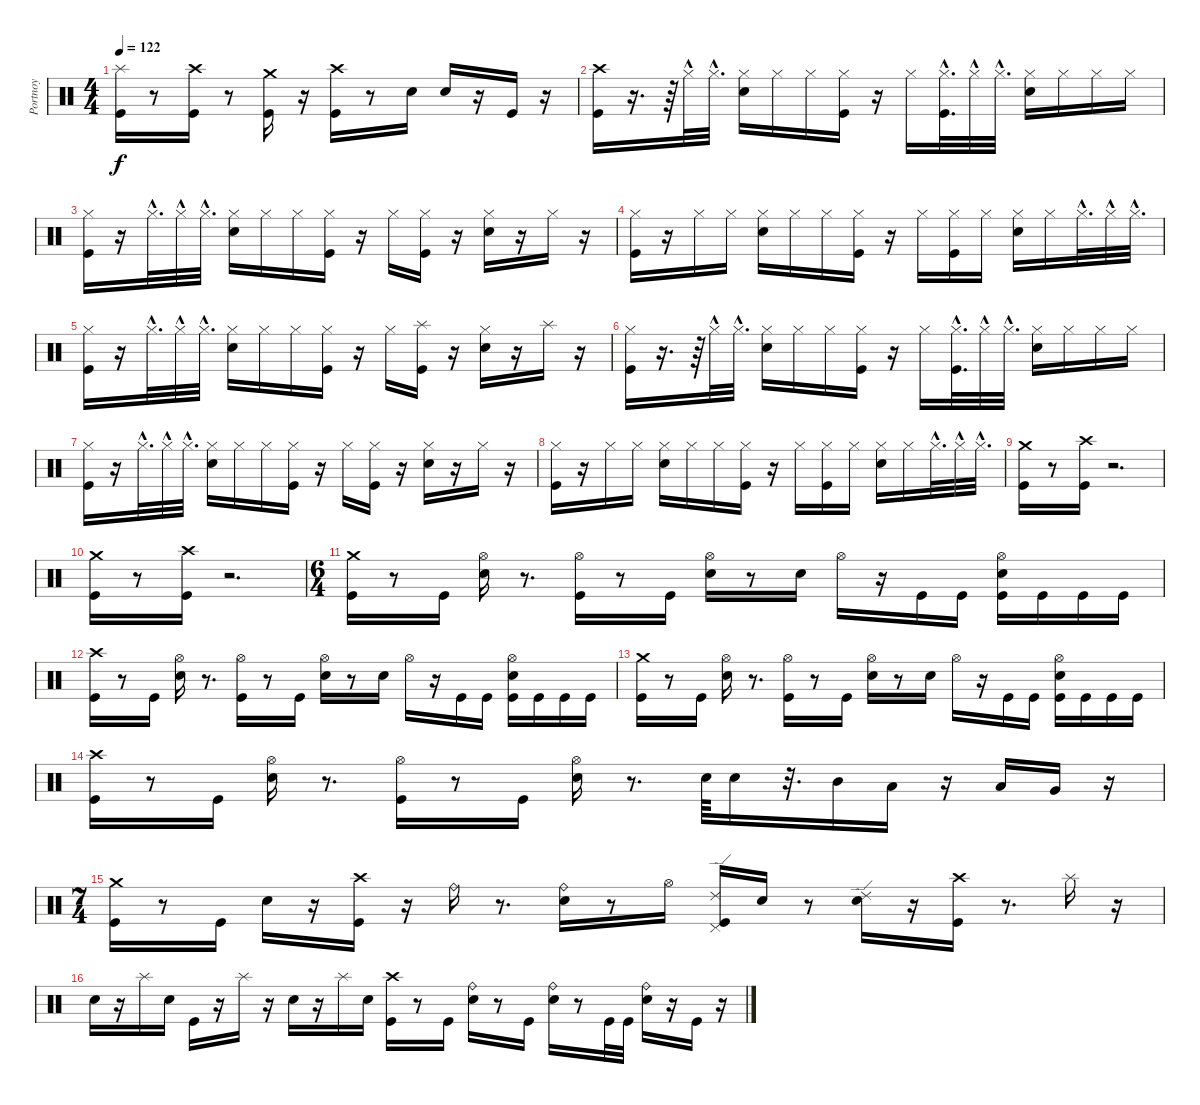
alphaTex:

\track ("Portnoy" "Portnoy") {instrument percussion}
\staff {score}
\articulation defaults
\ts (4 4)
\tempo 122
\clef neutral
\ks c
("Splash (hit)" "Kick (hit)").16{dy f} r.8 ("Crash high (hit)" "Kick (hit)").16 r.8 ("Crash medium (hit)" "Kick (hit)").16 r.16 ("Crash high (hit)" "Kick (hit)").16 r.8 "Metronome (bell)".16 "Metronome (bell)".16 r.16 "Kick (hit)".16 r.16 |
("Crash high (hit)" "Kick (hit)").16 r.16{d} r.64 "Hi-Hat (closed)"{hac}.32 "Hi-Hat (closed)"{hac}.32{d} ("Metronome (bell)" "Hi-Hat (closed)").16 "Hi-Hat (closed)".16 "Hi-Hat (closed)".16 ("Hi-Hat (closed)" "Kick (hit)").16 r.16 "Hi-Hat (closed)".16 ("Hi-Hat (closed)"{hac} "Kick (hit)"{hac}).32{d} "Hi-Hat (closed)"{hac}.32 "Hi-Hat (closed)"{hac}.32{d} ("Metronome (bell)" "Hi-Hat (closed)").16 "Hi-Hat (closed)".16 "Hi-Hat (closed)".16 "Hi-Hat (closed)".16 |
("Hi-Hat (closed)" "Kick (hit)").16 r.16 "Hi-Hat (closed)"{hac}.32{d} "Hi-Hat (closed)"{hac}.32 "Hi-Hat (closed)"{hac}.32{d} ("Hi-Hat (closed)" "Metronome (bell)").16 "Hi-Hat (closed)".16 "Hi-Hat (closed)".16 ("Hi-Hat (closed)" "Kick (hit)").16 r.16 "Hi-Hat (closed)".16 ("Hi-Hat (closed)" "Kick (hit)").16 r.16 ("Hi-Hat (closed)" "Metronome (bell)").16 r.16 "Hi-Hat (closed)".16 r.16 |
("Hi-Hat (closed)" "Kick (hit)").16 r.16 "Hi-Hat (closed)".16 "Hi-Hat (closed)".16 ("Metronome (bell)" "Hi-Hat (closed)").16 "Hi-Hat (closed)".16 "Hi-Hat (closed)".16 ("Hi-Hat (closed)" "Kick (hit)").16 r.16 "Hi-Hat (closed)".16 ("Hi-Hat (closed)" "Kick (hit)").16 "Hi-Hat (closed)".16 ("Metronome (bell)" "Hi-Hat (closed)").16 "Hi-Hat (closed)".16 "Hi-Hat (closed)"{hac}.32{d} "Hi-Hat (closed)"{hac}.32 "Hi-Hat (closed)"{hac}.32{d} |
("Hi-Hat (closed)" "Kick (hit)").16 r.16 "Hi-Hat (closed)"{hac}.32{d} "Hi-Hat (closed)"{hac}.32 "Hi-Hat (closed)"{hac}.32{d} ("Hi-Hat (closed)" "Metronome (bell)").16 "Hi-Hat (closed)".16 "Hi-Hat (closed)".16 ("Hi-Hat (closed)" "Kick (hit)").16 r.16 "Hi-Hat (closed)".16 ("Splash (hit)" "Kick (hit)").16 r.16 ("Hi-Hat (closed)" "Metronome (bell)").16 r.16 "Splash (hit)".16 r.16 |
("Hi-Hat (closed)" "Kick (hit)").16 r.16{d} r.64 "Hi-Hat (closed)"{hac}.32 "Hi-Hat (closed)"{hac}.32{d} ("Metronome (bell)" "Hi-Hat (closed)").16 "Hi-Hat (closed)".16 "Hi-Hat (closed)".16 ("Hi-Hat (closed)" "Kick (hit)").16 r.16 "Hi-Hat (closed)".16 ("Hi-Hat (closed)"{hac} "Kick (hit)"{hac}).32{d} "Hi-Hat (closed)"{hac}.32 "Hi-Hat (closed)"{hac}.32{d} ("Metronome (bell)" "Hi-Hat (closed)").16 "Hi-Hat (closed)".16 "Hi-Hat (closed)".16 "Hi-Hat (closed)".16 |
("Hi-Hat (closed)" "Kick (hit)").16 r.16 "Hi-Hat (closed)"{hac}.32{d} "Hi-Hat (closed)"{hac}.32 "Hi-Hat (closed)"{hac}.32{d} ("Hi-Hat (closed)" "Metronome (bell)").16 "Hi-Hat (closed)".16 "Hi-Hat (closed)".16 ("Hi-Hat (closed)" "Kick (hit)").16 r.16 "Hi-Hat (closed)".16 ("Hi-Hat (closed)" "Kick (hit)").16 r.16 ("Hi-Hat (closed)" "Metronome (bell)").16 r.16 "Hi-Hat (closed)".16 r.16 |
("Hi-Hat (closed)" "Kick (hit)").16 r.16 "Hi-Hat (closed)".16 "Hi-Hat (closed)".16 ("Metronome (bell)" "Hi-Hat (closed)").16 "Hi-Hat (closed)".16 "Hi-Hat (closed)".16 ("Hi-Hat (closed)" "Kick (hit)").16 r.16 "Hi-Hat (closed)".16 ("Hi-Hat (closed)" "Kick (hit)").16 "Hi-Hat (closed)".16 ("Metronome (bell)" "Hi-Hat (closed)").16 "Hi-Hat (closed)".16 "Hi-Hat (closed)"{hac}.32{d} "Hi-Hat (closed)"{hac}.32 "Hi-Hat (closed)"{hac}.32{d} |
("Crash medium (hit)" "Kick (hit)").16 r.8 ("Crash high (hit)" "Kick (hit)").16 r.2{d} |
("Crash medium (hit)" "Kick (hit)").16 r.8 ("Crash high (hit)" "Kick (hit)").16 r.2{d} |
\ts (6 4)
("Kick (hit)" "Crash medium (hit)").16 r.8 "Kick (hit)".16 ("Metronome (bell)" "Hi-Hat (open)").16 r.8{d} ("Kick (hit)" "Hi-Hat (open)").16 r.8 "Kick (hit)".16 ("Metronome (bell)" "Hi-Hat (open)").16 r.8 "Metronome (bell)".16 "Hi-Hat (open)".16 r.16 "Kick (hit)".16 "Kick (hit)".16 ("Kick (hit)" "Metronome (bell)" "Hi-Hat (open)").16 "Kick (hit)".16 "Kick (hit)".16 "Kick (hit)".16 |
("Kick (hit)" "Crash high (hit)").16 r.8 "Kick (hit)".16 ("Metronome (bell)" "Hi-Hat (open)").16 r.8{d} ("Kick (hit)" "Hi-Hat (open)").16 r.8 "Kick (hit)".16 ("Metronome (bell)" "Hi-Hat (open)").16 r.8 "Metronome (bell)".16 "Hi-Hat (open)".16 r.16 "Kick (hit)".16 "Kick (hit)".16 ("Kick (hit)" "Metronome (bell)" "Hi-Hat (open)").16 "Kick (hit)".16 "Kick (hit)".16 "Kick (hit)".16 |
("Kick (hit)" "Crash medium (hit)").16 r.8 "Kick (hit)".16 ("Metronome (bell)" "Hi-Hat (open)").16 r.8{d} ("Kick (hit)" "Hi-Hat (open)").16 r.8 "Kick (hit)".16 ("Metronome (bell)" "Hi-Hat (open)").16 r.8 "Metronome (bell)".16 "Hi-Hat (open)".16 r.16 "Kick (hit)".16 "Kick (hit)".16 ("Kick (hit)" "Metronome (bell)" "Hi-Hat (open)").16 "Kick (hit)".16 "Kick (hit)".16 "Kick (hit)".16 |
("Kick (hit)" "Crash high (hit)").16 r.8 "Kick (hit)".16 ("Metronome (bell)" "Hi-Hat (open)").16 r.8{d} ("Kick (hit)" "Hi-Hat (open)").16 r.8 "Kick (hit)".16 ("Metronome (bell)" "Hi-Hat (open)").16 r.8{d} "Metronome (bell)".64 "Metronome (bell)".16 r.32{d} "Mid Tom (hit)".16 "Low Tom (hit)".16 r.16 "Low Tom (hit)".16 "Very Low Tom (hit)".16 r.16 |
\ts (7 4)
("Crash medium (hit)" "Kick (hit)").16 r.8 "Kick (hit)".16 "Metronome (bell)".16 r.16 ("Crash high (hit)" "Kick (hit)").16 r.16 "Ride (bell)".16 r.8{d} ("Metronome (bell)" "Ride (bell)").16 r.8 "Hi-Hat (open)".16 ("Pedal Hi-Hat (hit)" "Kick (hit)" "Ride (edge) 2").16 "Metronome (bell)".16 r.8 ("Ride (edge) 2" "Metronome (bell)").16 r.16 ("Crash high (hit)" "Kick (hit)").16 r.8{d} "Splash (hit)".16 r.16 |
"Metronome (bell)".16 r.16 "Splash (hit)".16 "Metronome (bell)".16 "Kick (hit)".16 r.16 "Splash (hit)".16 r.16 "Metronome (bell)".16 r.16 "Splash (hit)".16 "Metronome (bell)".16 ("Crash high (hit)" "Kick (hit)").16 r.8 "Kick (hit)".16 ("Ride (bell)" "Metronome (bell)").16 r.8 "Kick (hit)".16 ("Ride (bell)" "Metronome (bell)").16 r.8 "Kick (hit)".32 "Kick (hit)".32 ("Ride (bell)" "Metronome (bell)").16 r.16 "Kick (hit)".16 r.16
